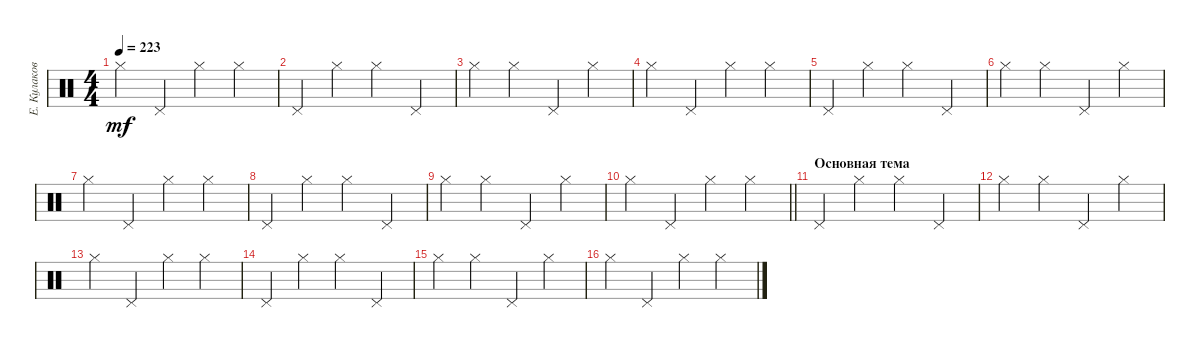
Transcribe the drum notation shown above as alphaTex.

\track ("Е. Кулаков" "Е. Кулаков") {instrument percussion}
\staff {score}
\articulation defaults
\ts (4 4)
\tempo 223
\clef neutral
\ks c "Hi-Hat (closed)".4{dy mf} "Pedal Hi-Hat (hit)".4 "Hi-Hat (closed)".4 "Hi-Hat (closed)".4
|
"Pedal Hi-Hat (hit)".4 "Hi-Hat (closed)".4 "Hi-Hat (closed)".4 "Pedal Hi-Hat (hit)".4 |
"Hi-Hat (closed)".4 "Hi-Hat (closed)".4 "Pedal Hi-Hat (hit)".4 "Hi-Hat (closed)".4 |
"Hi-Hat (closed)".4 "Pedal Hi-Hat (hit)".4 "Hi-Hat (closed)".4 "Hi-Hat (closed)".4 |
"Pedal Hi-Hat (hit)".4 "Hi-Hat (closed)".4 "Hi-Hat (closed)".4 "Pedal Hi-Hat (hit)".4 |
"Hi-Hat (closed)".4 "Hi-Hat (closed)".4 "Pedal Hi-Hat (hit)".4 "Hi-Hat (closed)".4 |
"Hi-Hat (closed)".4 "Pedal Hi-Hat (hit)".4 "Hi-Hat (closed)".4 "Hi-Hat (closed)".4 |
"Pedal Hi-Hat (hit)".4 "Hi-Hat (closed)".4 "Hi-Hat (closed)".4 "Pedal Hi-Hat (hit)".4 |
"Hi-Hat (closed)".4 "Hi-Hat (closed)".4 "Pedal Hi-Hat (hit)".4 "Hi-Hat (closed)".4 |
\barLineRight lightlight "Hi-Hat (closed)".4 "Pedal Hi-Hat (hit)".4 "Hi-Hat (closed)".4 "Hi-Hat (closed)".4
|
\section ("" "Основная тема")
"Pedal Hi-Hat (hit)".4 "Hi-Hat (closed)".4 "Hi-Hat (closed)".4 "Pedal Hi-Hat (hit)".4 |
"Hi-Hat (closed)".4 "Hi-Hat (closed)".4 "Pedal Hi-Hat (hit)".4 "Hi-Hat (closed)".4 |
"Hi-Hat (closed)".4 "Pedal Hi-Hat (hit)".4 "Hi-Hat (closed)".4 "Hi-Hat (closed)".4 |
"Pedal Hi-Hat (hit)".4 "Hi-Hat (closed)".4 "Hi-Hat (closed)".4 "Pedal Hi-Hat (hit)".4 |
"Hi-Hat (closed)".4 "Hi-Hat (closed)".4 "Pedal Hi-Hat (hit)".4 "Hi-Hat (closed)".4 |
"Hi-Hat (closed)".4 "Pedal Hi-Hat (hit)".4 "Hi-Hat (closed)".4 "Hi-Hat (closed)".4
